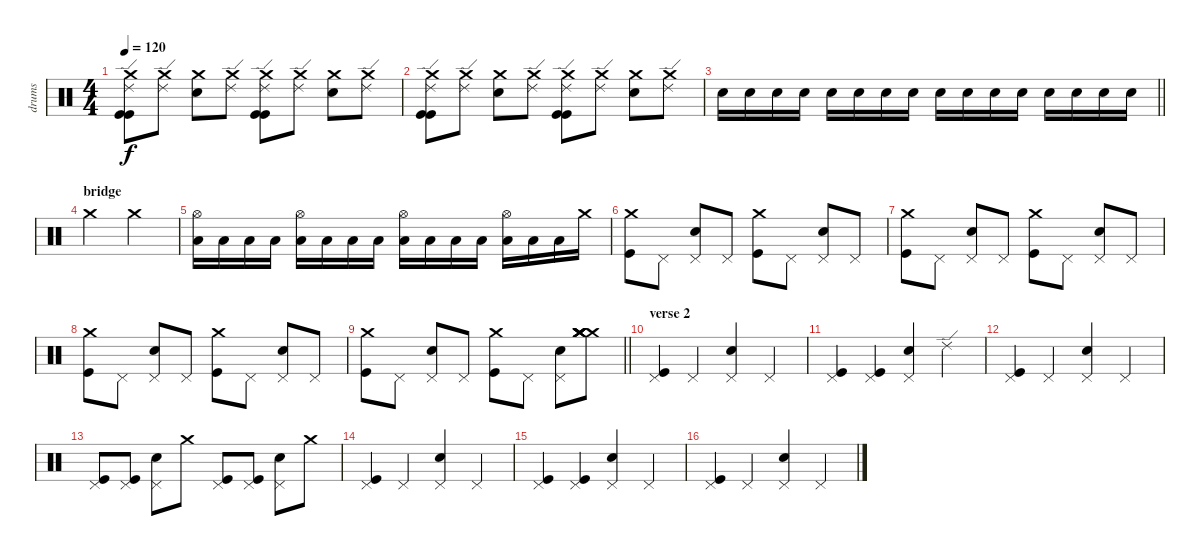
\track ("drums" "drums") {instrument percussion}
\staff {score}
\articulation defaults
\ts (4 4)
\tempo 120
\clef neutral
\ks c
("Crash medium (hit)" "Ride (edge) 2" "Kick (hit)" "Kick (hit)").8{dy f} ("Crash medium (hit)" "Ride (edge) 2").8 ("Crash medium (hit)" "Electric Snare (hit)").8 ("Crash medium (hit)" "Ride (edge) 2").8 ("Crash medium (hit)" "Ride (edge) 2" "Kick (hit)" "Kick (hit)").8 ("Crash medium (hit)" "Ride (edge) 2").8 ("Crash medium (hit)" "Electric Snare (hit)").8 ("Crash medium (hit)" "Ride (edge) 2").8 |
("Crash medium (hit)" "Ride (edge) 2" "Kick (hit)" "Kick (hit)").8 ("Crash medium (hit)" "Ride (edge) 2").8 ("Crash medium (hit)" "Electric Snare (hit)").8 ("Crash medium (hit)" "Ride (edge) 2").8 ("Crash medium (hit)" "Ride (edge) 2" "Kick (hit)" "Kick (hit)").8 ("Crash medium (hit)" "Ride (edge) 2").8 ("Crash medium (hit)" "Electric Snare (hit)").8 ("Crash medium (hit)" "Ride (edge) 2").8 |
\barLineRight lightlight "Electric Snare (hit)".16 "Electric Snare (hit)".16 "Electric Snare (hit)".16 "Electric Snare (hit)".16 "Electric Snare (hit)".16 "Electric Snare (hit)".16 "Electric Snare (hit)".16 "Electric Snare (hit)".16 "Electric Snare (hit)".16 "Electric Snare (hit)".16 "Electric Snare (hit)".16 "Electric Snare (hit)".16 "Electric Snare (hit)".16 "Electric Snare (hit)".16 "Electric Snare (hit)".16 "Electric Snare (hit)".16
|
\section ("" "bridge")
"Crash medium (hit)".2 "Crash medium (hit)".2 |
("Hi-Hat (open)" "Low Tom (hit)").16 "Low Floor Tom (hit)".16 "Low Floor Tom (hit)".16 "Low Floor Tom (hit)".16 ("Hi-Hat (open)" "Low Tom (hit)").16 "Low Floor Tom (hit)".16 "Low Floor Tom (hit)".16 "Low Floor Tom (hit)".16 ("Hi-Hat (open)" "Low Tom (hit)").16 "Low Floor Tom (hit)".16 "Low Floor Tom (hit)".16 "Low Floor Tom (hit)".16 ("Hi-Hat (open)" "Low Tom (hit)").16 "Low Floor Tom (hit)".16 "Low Floor Tom (hit)".16 "Crash medium (hit)".16 |
("Crash medium (hit)" "Kick (hit)").8 "Pedal Hi-Hat (hit)".8 ("Pedal Hi-Hat (hit)" "Electric Snare (hit)").8 "Pedal Hi-Hat (hit)".8 ("Crash medium (hit)" "Kick (hit)").8 "Pedal Hi-Hat (hit)".8 ("Pedal Hi-Hat (hit)" "Electric Snare (hit)").8 "Pedal Hi-Hat (hit)".8 |
("Crash medium (hit)" "Kick (hit)").8 "Pedal Hi-Hat (hit)".8 ("Pedal Hi-Hat (hit)" "Electric Snare (hit)").8 "Pedal Hi-Hat (hit)".8 ("Crash medium (hit)" "Kick (hit)").8 "Pedal Hi-Hat (hit)".8 ("Pedal Hi-Hat (hit)" "Electric Snare (hit)").8 "Pedal Hi-Hat (hit)".8 |
("Crash medium (hit)" "Kick (hit)").8 "Pedal Hi-Hat (hit)".8 ("Pedal Hi-Hat (hit)" "Electric Snare (hit)").8 "Pedal Hi-Hat (hit)".8 ("Crash medium (hit)" "Kick (hit)").8 "Pedal Hi-Hat (hit)".8 ("Pedal Hi-Hat (hit)" "Electric Snare (hit)").8 "Pedal Hi-Hat (hit)".8 |
\barLineRight lightlight
("Crash medium (hit)" "Kick (hit)").8 "Pedal Hi-Hat (hit)".8 ("Pedal Hi-Hat (hit)" "Electric Snare (hit)").8 "Pedal Hi-Hat (hit)".8 ("Crash medium (hit)" "Kick (hit)").8 "Pedal Hi-Hat (hit)".8 ("Pedal Hi-Hat (hit)" "Electric Snare (hit)").8 ("Crash medium (hit)" "Crash medium (hit)" "Crash medium (hit)" "Crash medium (hit)" "Crash medium (hit)" "Crash medium (hit)").8 |
\section ("" "verse 2")
("Pedal Hi-Hat (hit)" "Kick (hit)").4 "Pedal Hi-Hat (hit)".4 ("Pedal Hi-Hat (hit)" "Electric Snare (hit)").4 "Pedal Hi-Hat (hit)".4 |
("Pedal Hi-Hat (hit)" "Kick (hit)").4 ("Pedal Hi-Hat (hit)" "Kick (hit)").4 ("Pedal Hi-Hat (hit)" "Electric Snare (hit)").4 "Ride (edge) 2".4 |
("Pedal Hi-Hat (hit)" "Kick (hit)").4 "Pedal Hi-Hat (hit)".4 ("Pedal Hi-Hat (hit)" "Electric Snare (hit)").4 "Pedal Hi-Hat (hit)".4 |
("Pedal Hi-Hat (hit)" "Kick (hit)").8 ("Pedal Hi-Hat (hit)" "Kick (hit)").8 ("Pedal Hi-Hat (hit)" "Electric Snare (hit)").8 "Crash medium (hit)".8 ("Pedal Hi-Hat (hit)" "Kick (hit)").8 ("Pedal Hi-Hat (hit)" "Kick (hit)").8 ("Pedal Hi-Hat (hit)" "Electric Snare (hit)").8 "Crash medium (hit)".8 |
("Pedal Hi-Hat (hit)" "Kick (hit)").4 "Pedal Hi-Hat (hit)".4 ("Pedal Hi-Hat (hit)" "Electric Snare (hit)").4 "Pedal Hi-Hat (hit)".4 |
("Pedal Hi-Hat (hit)" "Kick (hit)").4 ("Pedal Hi-Hat (hit)" "Kick (hit)").4 ("Pedal Hi-Hat (hit)" "Electric Snare (hit)").4 "Pedal Hi-Hat (hit)".4 |
("Pedal Hi-Hat (hit)" "Kick (hit)").4 "Pedal Hi-Hat (hit)".4 ("Pedal Hi-Hat (hit)" "Electric Snare (hit)").4 "Pedal Hi-Hat (hit)".4
